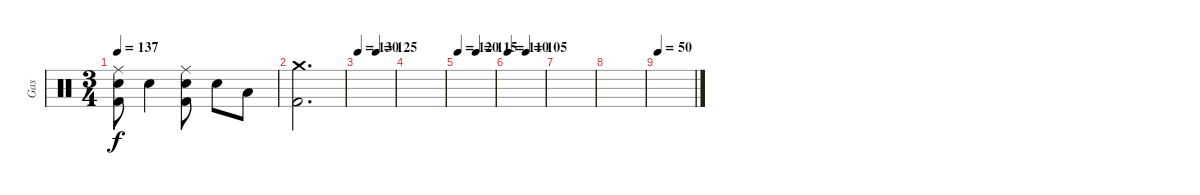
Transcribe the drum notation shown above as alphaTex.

\track ("Gas" "Gas") {instrument percussion}
\staff {score}
\articulation defaults
\ts (3 4)
\tempo 137
\clef neutral
\ks c
("Ride (middle)" "Snare (hit) 2" "Kick (hit) 2").8{dy f} "Snare (hit) 2".4 ("Ride (middle)" "Snare (hit) 2" "Kick (hit) 2").8 "Snare (hit) 2".8 "Low Tom (hit)".8 |
("Crash medium (hit)" "Kick (hit) 2").2{d} |
\tempo 130
\tempo (125 0.5)
|
|
\tempo 120
\tempo (115 0.5)
|
\tempo 110
\tempo (105 0.5)
|
|
|
\tempo 50
